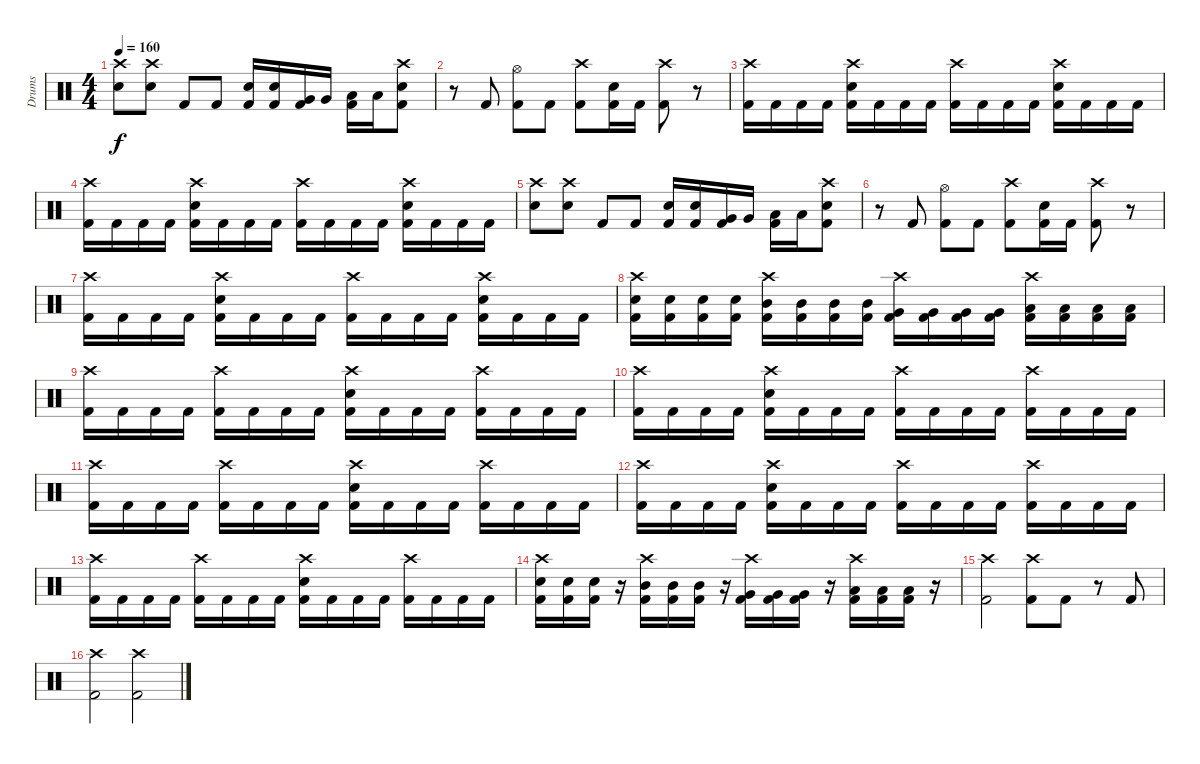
\track ("Drums" "Drums") {instrument percussion}
\staff {score}
\articulation defaults
\ts (4 4)
\tempo 160
\clef neutral
\ks c
("Crash high (hit)" "Electric Snare (hit)").8{dy f} ("Crash high (hit)" "Electric Snare (hit)").8 "Kick (hit) 2".8 "Kick (hit) 2".8 ("Electric Snare (hit)" "Kick (hit) 2").16 ("Electric Snare (hit)" "Kick (hit) 2").16 ("Very Low Tom (hit)" "Kick (hit) 2").16 "Very Low Tom (hit)".16 ("Low Floor Tom (hit)" "Kick (hit) 2").16 "Low Floor Tom (hit)".16 ("Crash high (hit)" "Electric Snare (hit)" "Kick (hit) 2").8 |
r.8 "Kick (hit) 2".8 ("Hi-Hat (open)" "Kick (hit) 2").8 "Kick (hit) 2".8 ("Crash high (hit)" "Kick (hit) 2").8 ("Electric Snare (hit)" "Kick (hit) 2").16 "Kick (hit) 2".16 ("Crash high (hit)" "Kick (hit) 2").8 r.8 |
("Crash high (hit)" "Kick (hit) 2").16 "Kick (hit) 2".16 "Kick (hit) 2".16 "Kick (hit) 2".16 ("Crash high (hit)" "Electric Snare (hit)" "Kick (hit) 2").16 "Kick (hit) 2".16 "Kick (hit) 2".16 "Kick (hit) 2".16 ("Crash high (hit)" "Kick (hit) 2").16 "Kick (hit) 2".16 "Kick (hit) 2".16 "Kick (hit) 2".16 ("Crash high (hit)" "Electric Snare (hit)" "Kick (hit) 2").16 "Kick (hit) 2".16 "Kick (hit) 2".16 "Kick (hit) 2".16 |
("Crash high (hit)" "Kick (hit) 2").16 "Kick (hit) 2".16 "Kick (hit) 2".16 "Kick (hit) 2".16 ("Crash high (hit)" "Electric Snare (hit)" "Kick (hit) 2").16 "Kick (hit) 2".16 "Kick (hit) 2".16 "Kick (hit) 2".16 ("Crash high (hit)" "Kick (hit) 2").16 "Kick (hit) 2".16 "Kick (hit) 2".16 "Kick (hit) 2".16 ("Crash high (hit)" "Electric Snare (hit)" "Kick (hit) 2").16 "Kick (hit) 2".16 "Kick (hit) 2".16 "Kick (hit) 2".16 |
("Crash high (hit)" "Electric Snare (hit)").8 ("Crash high (hit)" "Electric Snare (hit)").8 "Kick (hit) 2".8 "Kick (hit) 2".8 ("Electric Snare (hit)" "Kick (hit) 2").16 ("Electric Snare (hit)" "Kick (hit) 2").16 ("Very Low Tom (hit)" "Kick (hit) 2").16 "Very Low Tom (hit)".16 ("Low Floor Tom (hit)" "Kick (hit) 2").16 "Low Floor Tom (hit)".16 ("Crash high (hit)" "Electric Snare (hit)" "Kick (hit) 2").8 |
r.8 "Kick (hit) 2".8 ("Hi-Hat (open)" "Kick (hit) 2").8 "Kick (hit) 2".8 ("Crash high (hit)" "Kick (hit) 2").8 ("Electric Snare (hit)" "Kick (hit) 2").16 "Kick (hit) 2".16 ("Crash high (hit)" "Kick (hit) 2").8 r.8 |
("Crash high (hit)" "Kick (hit) 2").16 "Kick (hit) 2".16 "Kick (hit) 2".16 "Kick (hit) 2".16 ("Crash high (hit)" "Electric Snare (hit)" "Kick (hit) 2").16 "Kick (hit) 2".16 "Kick (hit) 2".16 "Kick (hit) 2".16 ("Crash high (hit)" "Kick (hit) 2").16 "Kick (hit) 2".16 "Kick (hit) 2".16 "Kick (hit) 2".16 ("Crash high (hit)" "Electric Snare (hit)" "Kick (hit) 2").16 "Kick (hit) 2".16 "Kick (hit) 2".16 "Kick (hit) 2".16 |
("Crash high (hit)" "Electric Snare (hit)" "Kick (hit) 2").16 ("Electric Snare (hit)" "Kick (hit) 2").16 ("Electric Snare (hit)" "Kick (hit) 2").16 ("Electric Snare (hit)" "Kick (hit) 2").16 ("Crash high (hit)" "Mid Tom (hit)" "Kick (hit) 2").16 ("Mid Tom (hit)" "Kick (hit) 2").16 ("Mid Tom (hit)" "Kick (hit) 2").16 ("Mid Tom (hit)" "Kick (hit) 2").16 ("Crash high (hit)" "Very Low Tom (hit)" "Kick (hit) 2").16 ("Very Low Tom (hit)" "Kick (hit) 2").16 ("Very Low Tom (hit)" "Kick (hit) 2").16 ("Very Low Tom (hit)" "Kick (hit) 2").16 ("Crash high (hit)" "Low Floor Tom (hit)" "Kick (hit) 2").16 ("Low Floor Tom (hit)" "Kick (hit) 2").16 ("Low Floor Tom (hit)" "Kick (hit) 2").16 ("Low Floor Tom (hit)" "Kick (hit) 2").16 |
("Crash high (hit)" "Kick (hit) 2").16 "Kick (hit) 2".16 "Kick (hit) 2".16 "Kick (hit) 2".16 ("Crash high (hit)" "Kick (hit) 2").16 "Kick (hit) 2".16 "Kick (hit) 2".16 "Kick (hit) 2".16 ("Crash high (hit)" "Electric Snare (hit)" "Kick (hit) 2").16 "Kick (hit) 2".16 "Kick (hit) 2".16 "Kick (hit) 2".16 ("Crash high (hit)" "Kick (hit) 2").16 "Kick (hit) 2".16 "Kick (hit) 2".16 "Kick (hit) 2".16 |
("Crash high (hit)" "Kick (hit) 2").16 "Kick (hit) 2".16 "Kick (hit) 2".16 "Kick (hit) 2".16 ("Crash high (hit)" "Electric Snare (hit)" "Kick (hit) 2").16 "Kick (hit) 2".16 "Kick (hit) 2".16 "Kick (hit) 2".16 ("Crash high (hit)" "Kick (hit) 2").16 "Kick (hit) 2".16 "Kick (hit) 2".16 "Kick (hit) 2".16 ("Crash high (hit)" "Kick (hit) 2").16 "Kick (hit) 2".16 "Kick (hit) 2".16 "Kick (hit) 2".16 |
("Crash high (hit)" "Kick (hit) 2").16 "Kick (hit) 2".16 "Kick (hit) 2".16 "Kick (hit) 2".16 ("Crash high (hit)" "Kick (hit) 2").16 "Kick (hit) 2".16 "Kick (hit) 2".16 "Kick (hit) 2".16 ("Crash high (hit)" "Electric Snare (hit)" "Kick (hit) 2").16 "Kick (hit) 2".16 "Kick (hit) 2".16 "Kick (hit) 2".16 ("Crash high (hit)" "Kick (hit) 2").16 "Kick (hit) 2".16 "Kick (hit) 2".16 "Kick (hit) 2".16 |
("Crash high (hit)" "Kick (hit) 2").16 "Kick (hit) 2".16 "Kick (hit) 2".16 "Kick (hit) 2".16 ("Crash high (hit)" "Electric Snare (hit)" "Kick (hit) 2").16 "Kick (hit) 2".16 "Kick (hit) 2".16 "Kick (hit) 2".16 ("Crash high (hit)" "Kick (hit) 2").16 "Kick (hit) 2".16 "Kick (hit) 2".16 "Kick (hit) 2".16 ("Crash high (hit)" "Kick (hit) 2").16 "Kick (hit) 2".16 "Kick (hit) 2".16 "Kick (hit) 2".16 |
("Crash high (hit)" "Kick (hit) 2").16 "Kick (hit) 2".16 "Kick (hit) 2".16 "Kick (hit) 2".16 ("Crash high (hit)" "Kick (hit) 2").16 "Kick (hit) 2".16 "Kick (hit) 2".16 "Kick (hit) 2".16 ("Crash high (hit)" "Electric Snare (hit)" "Kick (hit) 2").16 "Kick (hit) 2".16 "Kick (hit) 2".16 "Kick (hit) 2".16 ("Crash high (hit)" "Kick (hit) 2").16 "Kick (hit) 2".16 "Kick (hit) 2".16 "Kick (hit) 2".16 |
("Crash high (hit)" "Electric Snare (hit)" "Kick (hit) 2").16 ("Electric Snare (hit)" "Kick (hit) 2").16 ("Electric Snare (hit)" "Kick (hit) 2").16 r.16 ("Crash high (hit)" "Mid Tom (hit)" "Kick (hit) 2").16 ("Mid Tom (hit)" "Kick (hit) 2").16 ("Mid Tom (hit)" "Kick (hit) 2").16 r.16 ("Crash high (hit)" "Very Low Tom (hit)" "Kick (hit) 2").16 ("Very Low Tom (hit)" "Kick (hit) 2").16 ("Very Low Tom (hit)" "Kick (hit) 2").16 r.16 ("Crash high (hit)" "Low Floor Tom (hit)" "Kick (hit) 2").16 ("Low Floor Tom (hit)" "Kick (hit) 2").16 ("Low Floor Tom (hit)" "Kick (hit) 2").16 r.16 |
("Crash high (hit)" "Kick (hit) 2").2 ("Crash high (hit)" "Kick (hit) 2").8 "Kick (hit) 2".8 r.8 "Kick (hit) 2".8 |
("Crash high (hit)" "Kick (hit) 2").2 ("Crash high (hit)" "Kick (hit) 2").2
